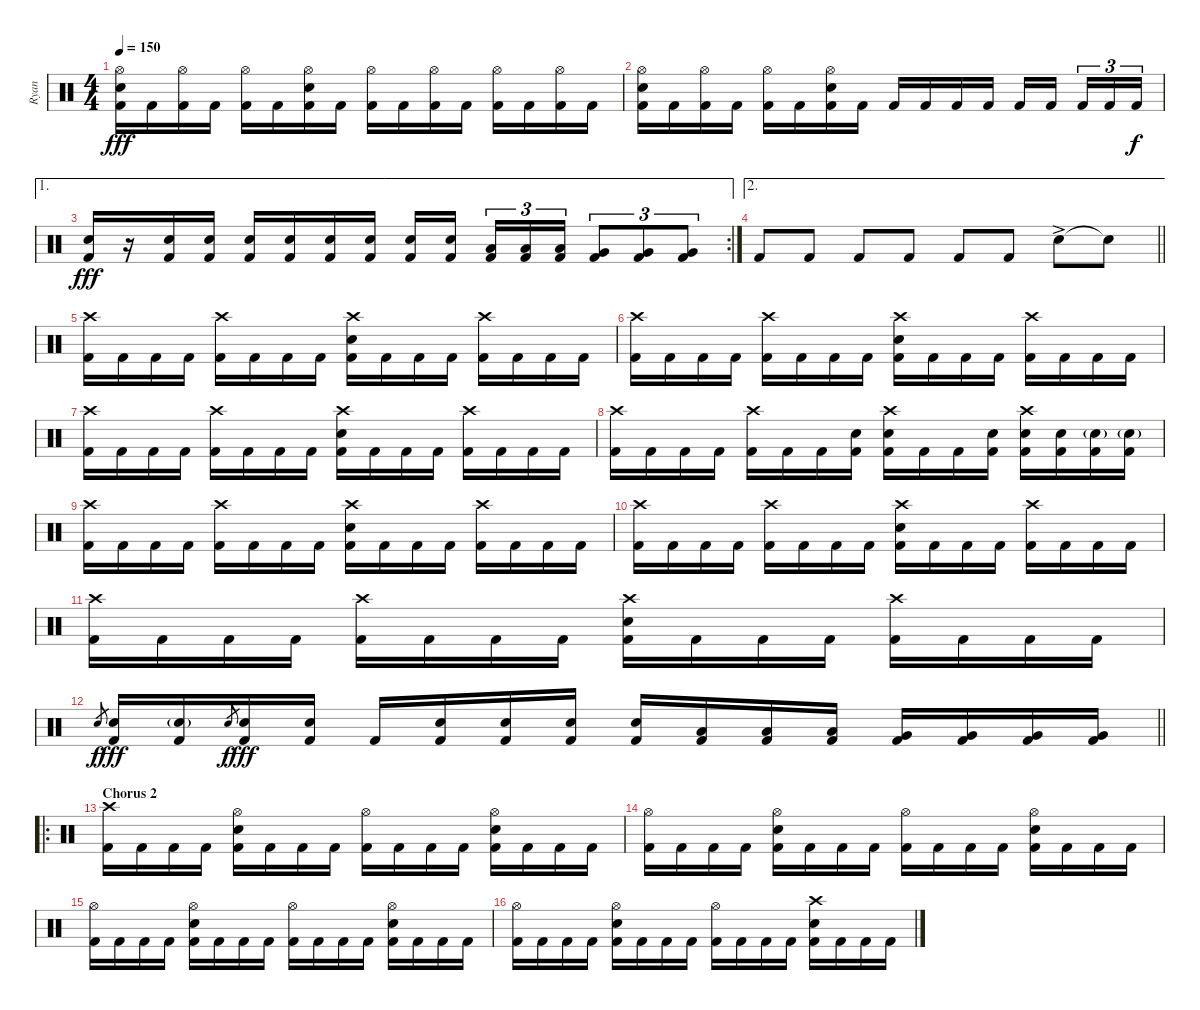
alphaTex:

\track ("Ryan" "Ryan") {instrument percussion}
\staff {score}
\articulation defaults
\ts (4 4)
\tempo 150
\clef neutral
\ks c
("Hi-Hat (open)" "Electric Snare (hit)" "Kick (hit) 2").16{dy fff} "Kick (hit) 2".16 ("Hi-Hat (open)" "Kick (hit) 2").16 "Kick (hit) 2".16 ("Hi-Hat (open)" "Kick (hit) 2").16 "Kick (hit) 2".16 ("Hi-Hat (open)" "Electric Snare (hit)" "Kick (hit) 2").16 "Kick (hit) 2".16 ("Hi-Hat (open)" "Kick (hit) 2").16 "Kick (hit) 2".16 ("Hi-Hat (open)" "Kick (hit) 2").16 "Kick (hit) 2".16 ("Hi-Hat (open)" "Kick (hit) 2").16 "Kick (hit) 2".16 ("Hi-Hat (open)" "Kick (hit) 2").16 "Kick (hit) 2".16 |
("Hi-Hat (open)" "Electric Snare (hit)" "Kick (hit) 2").16 "Kick (hit) 2".16 ("Hi-Hat (open)" "Kick (hit) 2").16 "Kick (hit) 2".16 ("Hi-Hat (open)" "Kick (hit) 2").16 "Kick (hit) 2".16 ("Hi-Hat (open)" "Electric Snare (hit)" "Kick (hit) 2").16 "Kick (hit) 2".16 "Kick (hit) 2".16 "Kick (hit) 2".16 "Kick (hit) 2".16 "Kick (hit) 2".16 "Kick (hit) 2".16 "Kick (hit) 2".16{beam splitsecondary} "Kick (hit) 2".16{tu (3 2)} "Kick (hit) 2".16{tu (3 2)} "Kick (hit) 2".16{tu (3 2) dy f} |
\ae 1
\rc 2
("Electric Snare (hit)" "Kick (hit) 2").16{dy fff} r.16 ("Electric Snare (hit)" "Kick (hit) 2").16 ("Electric Snare (hit)" "Kick (hit) 2").16 ("Electric Snare (hit)" "Kick (hit) 2").16 ("Electric Snare (hit)" "Kick (hit) 2").16 ("Electric Snare (hit)" "Kick (hit) 2").16 ("Electric Snare (hit)" "Kick (hit) 2").16 ("Electric Snare (hit)" "Kick (hit) 2").16 ("Electric Snare (hit)" "Kick (hit) 2").16{beam splitsecondary} ("Low Tom (hit)" "Kick (hit) 2").16{tu (3 2)} ("Low Tom (hit)" "Kick (hit) 2").16{tu (3 2)} ("Low Tom (hit)" "Kick (hit) 2").16{tu (3 2)} ("Very Low Tom (hit)" "Kick (hit) 2").8{tu (3 2)} ("Very Low Tom (hit)" "Kick (hit) 2").8{tu (3 2)} ("Very Low Tom (hit)" "Kick (hit) 2").8{tu (3 2)} |
\ae 2
\barLineRight lightlight "Kick (hit) 2".8 "Kick (hit) 2".8 "Kick (hit) 2".8 "Kick (hit) 2".8 "Kick (hit) 2".8 "Kick (hit) 2".8 "Electric Snare (hit)"{ac}.8 "Snare (hit)"{t}.8
|
("Crash high (hit)" "Kick (hit) 2").16 "Kick (hit) 2".16 "Kick (hit) 2".16 "Kick (hit) 2".16 ("Crash high (hit)" "Kick (hit) 2").16 "Kick (hit) 2".16 "Kick (hit) 2".16 "Kick (hit) 2".16 ("Crash high (hit)" "Electric Snare (hit)" "Kick (hit) 2").16 "Kick (hit) 2".16 "Kick (hit) 2".16 "Kick (hit) 2".16 ("Crash high (hit)" "Kick (hit) 2").16 "Kick (hit) 2".16 "Kick (hit) 2".16 "Kick (hit) 2".16 |
("Crash high (hit)" "Kick (hit) 2").16 "Kick (hit) 2".16 "Kick (hit) 2".16 "Kick (hit) 2".16 ("Crash high (hit)" "Kick (hit) 2").16 "Kick (hit) 2".16 "Kick (hit) 2".16 "Kick (hit) 2".16 ("Crash high (hit)" "Electric Snare (hit)" "Kick (hit) 2").16 "Kick (hit) 2".16 "Kick (hit) 2".16 "Kick (hit) 2".16 ("Crash high (hit)" "Kick (hit) 2").16 "Kick (hit) 2".16 "Kick (hit) 2".16 "Kick (hit) 2".16 |
("Crash high (hit)" "Kick (hit) 2").16 "Kick (hit) 2".16 "Kick (hit) 2".16 "Kick (hit) 2".16 ("Crash high (hit)" "Kick (hit) 2").16 "Kick (hit) 2".16 "Kick (hit) 2".16 "Kick (hit) 2".16 ("Crash high (hit)" "Electric Snare (hit)" "Kick (hit) 2").16 "Kick (hit) 2".16 "Kick (hit) 2".16 "Kick (hit) 2".16 ("Crash high (hit)" "Kick (hit) 2").16 "Kick (hit) 2".16 "Kick (hit) 2".16 "Kick (hit) 2".16 |
("Crash high (hit)" "Kick (hit) 2").16 "Kick (hit) 2".16 "Kick (hit) 2".16 "Kick (hit) 2".16 ("Crash high (hit)" "Kick (hit) 2").16 "Kick (hit) 2".16 "Kick (hit) 2".16 ("Electric Snare (hit)" "Kick (hit) 2").16 ("Crash high (hit)" "Electric Snare (hit)" "Kick (hit) 2").16 "Kick (hit) 2".16 "Kick (hit) 2".16 ("Electric Snare (hit)" "Kick (hit) 2").16 ("Crash high (hit)" "Electric Snare (hit)" "Kick (hit) 2").16 ("Electric Snare (hit)" "Kick (hit) 2").16 ("Electric Snare (hit)"{g} "Kick (hit) 2").16 ("Electric Snare (hit)"{g} "Kick (hit) 2").16 |
("Crash high (hit)" "Kick (hit) 2").16 "Kick (hit) 2".16 "Kick (hit) 2".16 "Kick (hit) 2".16 ("Crash high (hit)" "Kick (hit) 2").16 "Kick (hit) 2".16 "Kick (hit) 2".16 "Kick (hit) 2".16 ("Crash high (hit)" "Electric Snare (hit)" "Kick (hit) 2").16 "Kick (hit) 2".16 "Kick (hit) 2".16 "Kick (hit) 2".16 ("Crash high (hit)" "Kick (hit) 2").16 "Kick (hit) 2".16 "Kick (hit) 2".16 "Kick (hit) 2".16 |
("Crash high (hit)" "Kick (hit) 2").16 "Kick (hit) 2".16 "Kick (hit) 2".16 "Kick (hit) 2".16 ("Crash high (hit)" "Kick (hit) 2").16 "Kick (hit) 2".16 "Kick (hit) 2".16 "Kick (hit) 2".16 ("Crash high (hit)" "Electric Snare (hit)" "Kick (hit) 2").16 "Kick (hit) 2".16 "Kick (hit) 2".16 "Kick (hit) 2".16 ("Crash high (hit)" "Kick (hit) 2").16 "Kick (hit) 2".16 "Kick (hit) 2".16 "Kick (hit) 2".16 |
("Crash high (hit)" "Kick (hit) 2").16 "Kick (hit) 2".16 "Kick (hit) 2".16 "Kick (hit) 2".16 ("Crash high (hit)" "Kick (hit) 2").16 "Kick (hit) 2".16 "Kick (hit) 2".16 "Kick (hit) 2".16 ("Crash high (hit)" "Electric Snare (hit)" "Kick (hit) 2").16 "Kick (hit) 2".16 "Kick (hit) 2".16 "Kick (hit) 2".16 ("Crash high (hit)" "Kick (hit) 2").16 "Kick (hit) 2".16 "Kick (hit) 2".16 "Kick (hit) 2".16 |
\barLineRight lightlight "Electric Snare (hit)".8{gr dy f}
("Electric Snare (hit)" "Kick (hit) 2").16{dy fff} ("Electric Snare (hit)"{g} "Kick (hit) 2").16 "Electric Snare (hit)".8{gr dy f} ("Electric Snare (hit)" "Kick (hit) 2").16{dy fff} ("Electric Snare (hit)" "Kick (hit) 2").16 "Kick (hit) 2".16 ("Electric Snare (hit)" "Kick (hit) 2").16 ("Electric Snare (hit)" "Kick (hit) 2").16 ("Electric Snare (hit)" "Kick (hit) 2").16 ("Electric Snare (hit)" "Kick (hit) 2").16 ("Low Tom (hit)" "Kick (hit) 2").16 ("Low Tom (hit)" "Kick (hit) 2").16 ("Low Tom (hit)" "Kick (hit) 2").16 ("Very Low Tom (hit)" "Kick (hit) 2").16 ("Very Low Tom (hit)" "Kick (hit) 2").16 ("Very Low Tom (hit)" "Kick (hit) 2").16 ("Very Low Tom (hit)" "Kick (hit) 2").16 |
\ro
\section ("" "Chorus 2")
("Crash high (hit)" "Kick (hit) 2").16 "Kick (hit) 2".16 "Kick (hit) 2".16 "Kick (hit) 2".16 ("Hi-Hat (open)" "Electric Snare (hit)" "Kick (hit) 2").16 "Kick (hit) 2".16 "Kick (hit) 2".16 "Kick (hit) 2".16 ("Hi-Hat (open)" "Kick (hit) 2").16 "Kick (hit) 2".16 "Kick (hit) 2".16 "Kick (hit) 2".16 ("Hi-Hat (open)" "Electric Snare (hit)" "Kick (hit) 2").16 "Kick (hit) 2".16 "Kick (hit) 2".16 "Kick (hit) 2".16 |
("Hi-Hat (open)" "Kick (hit) 2").16 "Kick (hit) 2".16 "Kick (hit) 2".16 "Kick (hit) 2".16 ("Hi-Hat (open)" "Electric Snare (hit)" "Kick (hit) 2").16 "Kick (hit) 2".16 "Kick (hit) 2".16 "Kick (hit) 2".16 ("Hi-Hat (open)" "Kick (hit) 2").16 "Kick (hit) 2".16 "Kick (hit) 2".16 "Kick (hit) 2".16 ("Hi-Hat (open)" "Electric Snare (hit)" "Kick (hit) 2").16 "Kick (hit) 2".16 "Kick (hit) 2".16 "Kick (hit) 2".16 |
("Hi-Hat (open)" "Kick (hit) 2").16 "Kick (hit) 2".16 "Kick (hit) 2".16 "Kick (hit) 2".16 ("Hi-Hat (open)" "Electric Snare (hit)" "Kick (hit) 2").16 "Kick (hit) 2".16 "Kick (hit) 2".16 "Kick (hit) 2".16 ("Hi-Hat (open)" "Kick (hit) 2").16 "Kick (hit) 2".16 "Kick (hit) 2".16 "Kick (hit) 2".16 ("Hi-Hat (open)" "Electric Snare (hit)" "Kick (hit) 2").16 "Kick (hit) 2".16 "Kick (hit) 2".16 "Kick (hit) 2".16 |
("Hi-Hat (open)" "Kick (hit) 2").16 "Kick (hit) 2".16 "Kick (hit) 2".16 "Kick (hit) 2".16 ("Hi-Hat (open)" "Electric Snare (hit)" "Kick (hit) 2").16 "Kick (hit) 2".16 "Kick (hit) 2".16 "Kick (hit) 2".16 ("Hi-Hat (open)" "Kick (hit) 2").16 "Kick (hit) 2".16 "Kick (hit) 2".16 "Kick (hit) 2".16 ("Crash high (hit)" "Electric Snare (hit)" "Kick (hit) 2").16 "Kick (hit) 2".16 "Kick (hit) 2".16 "Kick (hit) 2".16
